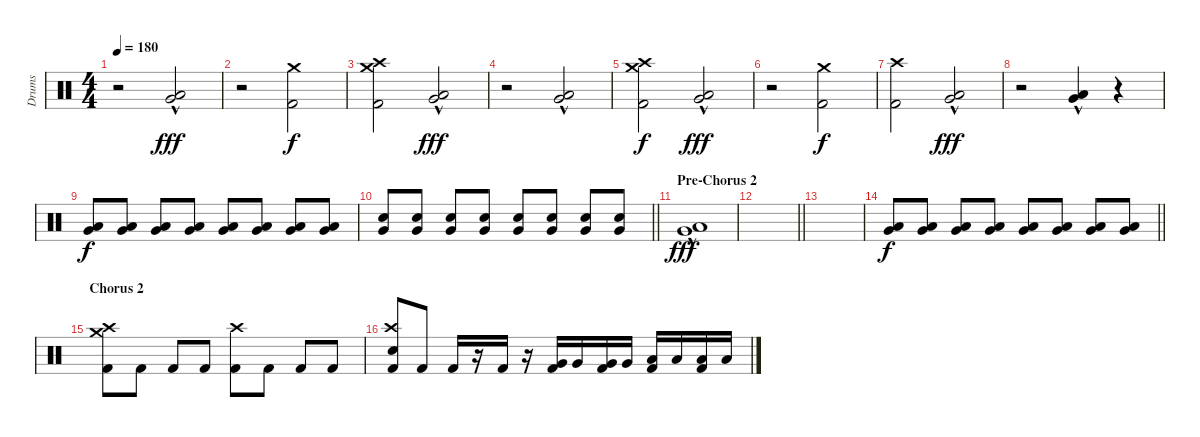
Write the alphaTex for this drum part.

\track ("Drums" "Drums") {instrument percussion}
\staff {score}
\articulation defaults
\ts (4 4)
\tempo 180
\clef neutral
\ks c
r.2{dy fff} ("Low Floor Tom (hit)"{hac} "Very Low Tom (hit)"{hac}).2 |
r.2 ("Crash medium (hit)" "Kick (hit) 2").2{dy f} |
("Crash high (hit)" "Crash medium (hit)" "Kick (hit) 2").2 ("Low Floor Tom (hit)"{hac} "Very Low Tom (hit)"{hac}).2{dy fff} |
r.2 ("Low Floor Tom (hit)"{hac} "Very Low Tom (hit)"{hac}).2 |
("Crash high (hit)" "Crash medium (hit)" "Kick (hit) 2").2{dy f} ("Low Floor Tom (hit)"{hac} "Very Low Tom (hit)"{hac}).2{dy fff} |
r.2 ("Crash medium (hit)" "Kick (hit) 2").2{dy f} |
("Crash high (hit)" "Kick (hit) 2").2 ("Low Floor Tom (hit)"{hac} "Very Low Tom (hit)"{hac}).2{dy fff} |
r.2 ("Low Floor Tom (hit)"{hac} "Very Low Tom (hit)"{hac}).4 r.4{volume 0} |
("Very Low Tom (hit)" "Low Floor Tom (hit)").8{dy f volume 11} ("Very Low Tom (hit)" "Low Floor Tom (hit)").8 ("Very Low Tom (hit)" "Low Floor Tom (hit)").8 ("Very Low Tom (hit)" "Low Floor Tom (hit)").8 ("Very Low Tom (hit)" "Low Floor Tom (hit)").8 ("Very Low Tom (hit)" "Low Floor Tom (hit)").8 ("Very Low Tom (hit)" "Low Floor Tom (hit)").8 ("Very Low Tom (hit)" "Low Floor Tom (hit)").8 |
\barLineRight lightlight
("Very Low Tom (hit)" "Electric Snare (hit)").8 ("Very Low Tom (hit)" "Electric Snare (hit)").8 ("Very Low Tom (hit)" "Electric Snare (hit)").8 ("Very Low Tom (hit)" "Electric Snare (hit)").8 ("Very Low Tom (hit)" "Electric Snare (hit)").8 ("Very Low Tom (hit)" "Electric Snare (hit)").8 ("Very Low Tom (hit)" "Electric Snare (hit)").8 ("Very Low Tom (hit)" "Electric Snare (hit)").8 |
\section ("" "Pre-Chorus 2")
("Very Low Tom (hit)"{hac} "Low Floor Tom (hit)"{hac}).1{dy fff} |
\barLineRight lightlight
|
|
\barLineRight lightlight
("Very Low Tom (hit)" "Low Floor Tom (hit)").8{dy f volume 11} ("Very Low Tom (hit)" "Low Floor Tom (hit)").8 ("Very Low Tom (hit)" "Low Floor Tom (hit)").8 ("Very Low Tom (hit)" "Low Floor Tom (hit)").8 ("Very Low Tom (hit)" "Low Floor Tom (hit)").8 ("Very Low Tom (hit)" "Low Floor Tom (hit)").8 ("Very Low Tom (hit)" "Low Floor Tom (hit)").8 ("Very Low Tom (hit)" "Low Floor Tom (hit)").8 |
\section ("" "Chorus 2")
("Crash high (hit)" "Crash medium (hit)" "Kick (hit) 2").8 "Kick (hit) 2".8 "Kick (hit) 2".8 "Kick (hit) 2".8 ("Crash high (hit)" "Kick (hit) 2").8 "Kick (hit) 2".8 "Kick (hit) 2".8 "Kick (hit) 2".8 |
("Crash high (hit)" "Electric Snare (hit)" "Kick (hit) 2").8 "Kick (hit) 2".8 "Kick (hit) 2".16 r.16 "Kick (hit) 2".16 r.16 ("Very Low Tom (hit)" "Kick (hit) 2").16 "Very Low Tom (hit)".16 ("Very Low Tom (hit)" "Kick (hit) 2").16 "Very Low Tom (hit)".16 ("Low Floor Tom (hit)" "Kick (hit) 2").16 "Low Floor Tom (hit)".16 ("Low Floor Tom (hit)" "Kick (hit) 2").16 "Low Floor Tom (hit)".16
